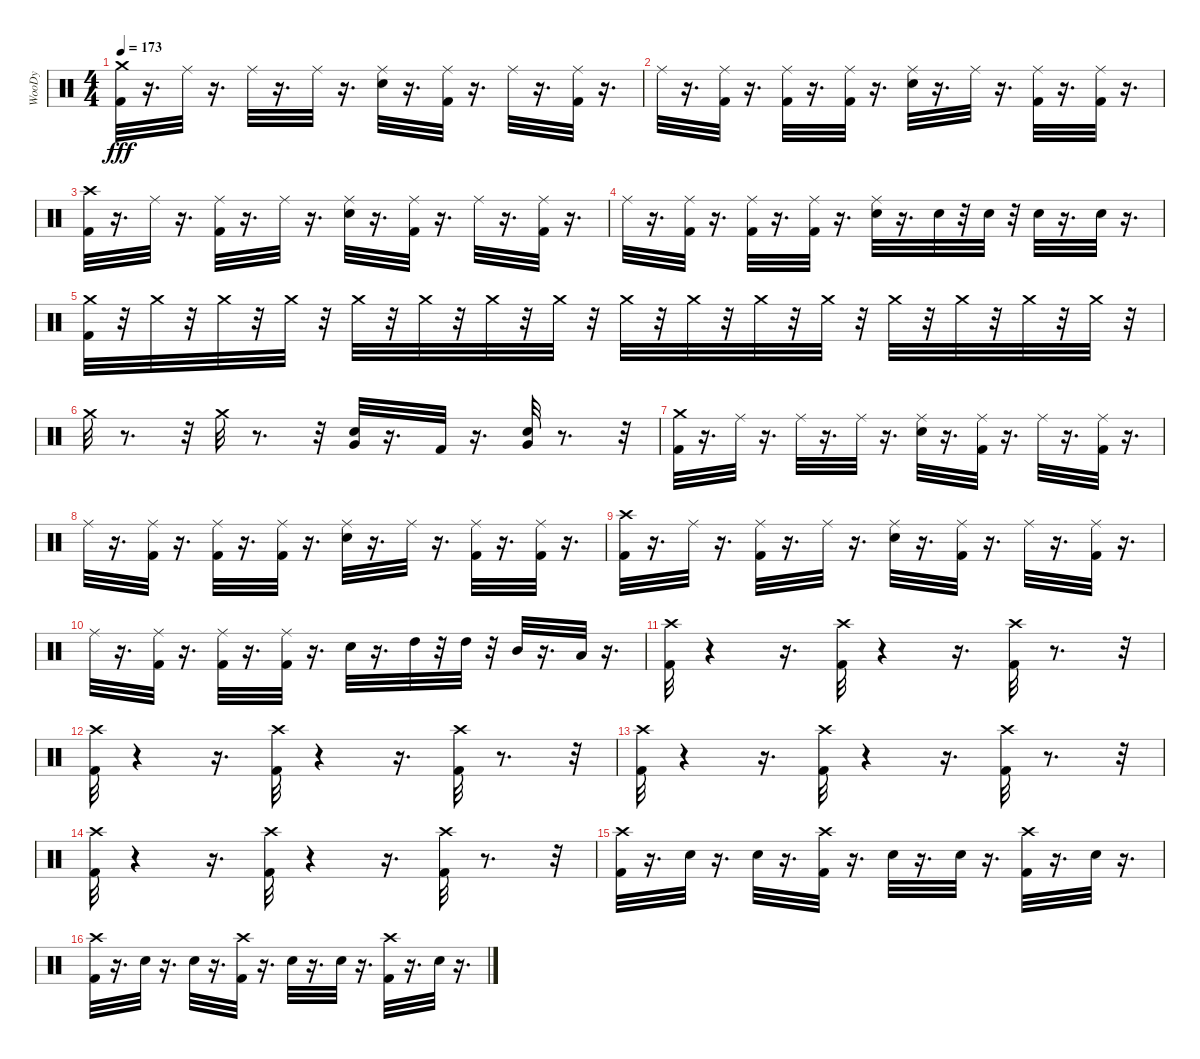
\track ("WooDy" "WooDy") {instrument percussion}
\staff {score}
\articulation defaults
\ts (4 4)
\tempo 173
\clef neutral
\ks c
("Kick (hit) 2" "Crash medium (hit)").32{dy fff} r.16{d} "Ride (middle)".32 r.16{d} "Ride (middle)".32 r.16{d} "Ride (middle)".32 r.16{d} ("Electric Snare (hit)" "Ride (middle)").32 r.16{d} ("Kick (hit) 2" "Ride (middle)").32 r.16{d} "Ride (middle)".32 r.16{d} ("Kick (hit) 2" "Ride (middle)").32 r.16{d} |
"Ride (middle)".32 r.16{d} ("Kick (hit) 2" "Ride (middle)").32 r.16{d} ("Kick (hit) 2" "Ride (middle)").32 r.16{d} ("Kick (hit) 2" "Ride (middle)").32 r.16{d} ("Electric Snare (hit)" "Ride (middle)").32 r.16{d} "Ride (middle)".32 r.16{d} ("Kick (hit) 2" "Ride (middle)").32 r.16{d} ("Kick (hit) 2" "Ride (middle)").32 r.16{d} |
("Kick (hit) 2" "Crash high (hit)").32 r.16{d} "Ride (middle)".32 r.16{d} ("Kick (hit) 2" "Ride (middle)").32 r.16{d} "Ride (middle)".32 r.16{d} ("Electric Snare (hit)" "Ride (middle)").32 r.16{d} ("Kick (hit) 2" "Ride (middle)").32 r.16{d} "Ride (middle)".32 r.16{d} ("Kick (hit) 2" "Ride (middle)").32 r.16{d} |
"Ride (middle)".32 r.16{d} ("Kick (hit) 2" "Ride (middle)").32 r.16{d} ("Kick (hit) 2" "Ride (middle)").32 r.16{d} ("Kick (hit) 2" "Ride (middle)").32 r.16{d} ("Electric Snare (hit)" "Ride (middle)").32 r.16{d} "Electric Snare (hit)".32 r.32 "Electric Snare (hit)".32 r.32 "Electric Snare (hit)".32 r.16{d} "Electric Snare (hit)".32 r.16{d} |
("Kick (hit) 2" "Crash medium (hit)").32 r.32 "Crash medium (hit)".32 r.32 "Crash medium (hit)".32 r.32 "Crash medium (hit)".32 r.32 "Crash medium (hit)".32 r.32 "Crash medium (hit)".32 r.32 "Crash medium (hit)".32 r.32 "Crash medium (hit)".32 r.32 "Crash medium (hit)".32 r.32 "Crash medium (hit)".32 r.32 "Crash medium (hit)".32 r.32 "Crash medium (hit)".32 r.32 "Crash medium (hit)".32 r.32 "Crash medium (hit)".32 r.32 "Crash medium (hit)".32 r.32 "Crash medium (hit)".32 r.32 |
"Crash medium (hit)".32 r.8{d} r.32 "Crash medium (hit)".32 r.8{d} r.32 ("Electric Snare (hit)" "Very Low Tom (hit)").32 r.16{d} "Kick (hit) 2".32 r.16{d} ("Electric Snare (hit)" "Very Low Tom (hit)").32 r.8{d} r.32 |
("Kick (hit) 2" "Crash medium (hit)").32 r.16{d} "Ride (middle)".32 r.16{d} "Ride (middle)".32 r.16{d} "Ride (middle)".32 r.16{d} ("Electric Snare (hit)" "Ride (middle)").32 r.16{d} ("Kick (hit) 2" "Ride (middle)").32 r.16{d} "Ride (middle)".32 r.16{d} ("Kick (hit) 2" "Ride (middle)").32 r.16{d} |
"Ride (middle)".32 r.16{d} ("Kick (hit) 2" "Ride (middle)").32 r.16{d} ("Kick (hit) 2" "Ride (middle)").32 r.16{d} ("Kick (hit) 2" "Ride (middle)").32 r.16{d} ("Electric Snare (hit)" "Ride (middle)").32 r.16{d} "Ride (middle)".32 r.16{d} ("Kick (hit) 2" "Ride (middle)").32 r.16{d} ("Kick (hit) 2" "Ride (middle)").32 r.16{d} |
("Kick (hit) 2" "Crash high (hit)").32 r.16{d} "Ride (middle)".32 r.16{d} ("Kick (hit) 2" "Ride (middle)").32 r.16{d} "Ride (middle)".32 r.16{d} ("Electric Snare (hit)" "Ride (middle)").32 r.16{d} ("Kick (hit) 2" "Ride (middle)").32 r.16{d} "Ride (middle)".32 r.16{d} ("Kick (hit) 2" "Ride (middle)").32 r.16{d} |
"Ride (middle)".32 r.16{d} ("Kick (hit) 2" "Ride (middle)").32 r.16{d} ("Kick (hit) 2" "Ride (middle)").32 r.16{d} ("Kick (hit) 2" "Ride (middle)").32 r.16{d} "Electric Snare (hit)".32 r.16{d} "High Tom (hit)".32 r.32 "High Tom (hit)".32 r.32 "Mid Tom (hit)".32 r.16{d} "Low Tom (hit)".32 r.16{d} |
("Kick (hit) 2" "Crash high (hit)").32 r.4 r.16{d} ("Kick (hit) 2" "Crash high (hit)").32 r.4 r.16{d} ("Kick (hit) 2" "Crash high (hit)").32 r.8{d} r.32 |
("Kick (hit) 2" "Crash high (hit)").32 r.4 r.16{d} ("Kick (hit) 2" "Crash high (hit)").32 r.4 r.16{d} ("Kick (hit) 2" "Crash high (hit)").32 r.8{d} r.32 |
("Kick (hit) 2" "Crash high (hit)").32 r.4 r.16{d} ("Kick (hit) 2" "Crash high (hit)").32 r.4 r.16{d} ("Kick (hit) 2" "Crash high (hit)").32 r.8{d} r.32 |
("Kick (hit) 2" "Crash high (hit)").32 r.4 r.16{d} ("Kick (hit) 2" "Crash high (hit)").32 r.4 r.16{d} ("Kick (hit) 2" "Crash high (hit)").32 r.8{d} r.32 |
("Kick (hit) 2" "Crash high (hit)").32 r.16{d} "Electric Snare (hit)".32 r.16{d} "Electric Snare (hit)".32 r.16{d} ("Kick (hit) 2" "Crash high (hit)").32 r.16{d} "Electric Snare (hit)".32 r.16{d} "Electric Snare (hit)".32 r.16{d} ("Kick (hit) 2" "Crash high (hit)").32 r.16{d} "Electric Snare (hit)".32 r.16{d} |
("Kick (hit) 2" "Crash high (hit)").32 r.16{d} "Electric Snare (hit)".32 r.16{d} "Electric Snare (hit)".32 r.16{d} ("Kick (hit) 2" "Crash high (hit)").32 r.16{d} "Electric Snare (hit)".32 r.16{d} "Electric Snare (hit)".32 r.16{d} ("Kick (hit) 2" "Crash high (hit)").32 r.16{d} "Electric Snare (hit)".32 r.16{d}
